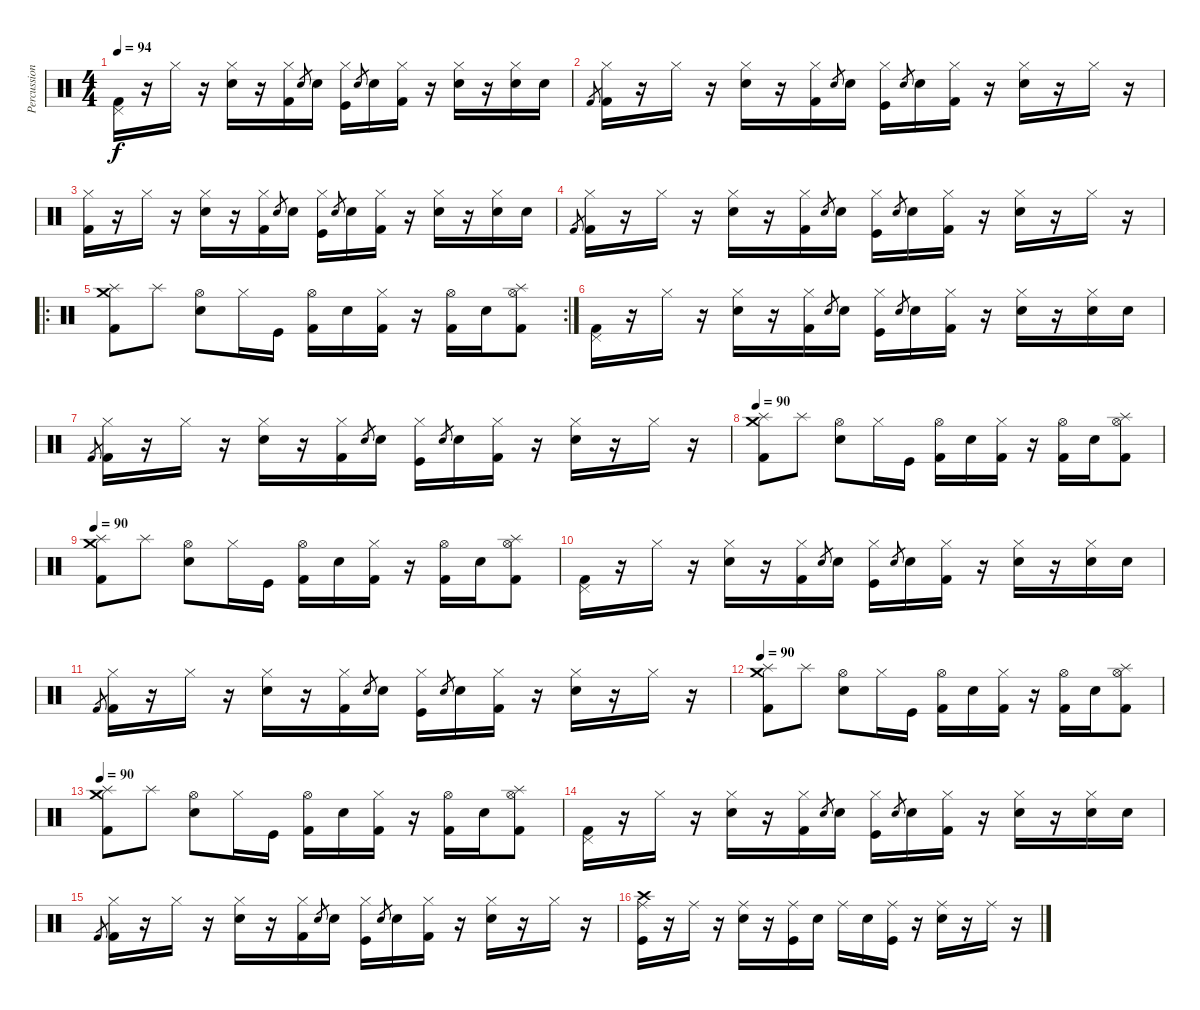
\track ("Percussions" "Percussion") {instrument percussion}
\staff {score}
\articulation defaults
\ts (4 4)
\tempo 94
\clef neutral
\ks c
("Pedal Hi-Hat (hit)" "Kick (hit) 2").16{dy f} r.16 "Hi-Hat (closed)".16 r.16 ("Hi-Hat (closed)" "Electric Snare (hit)").16 r.16 ("Hi-Hat (closed)" "Kick (hit) 2").16 "Electric Snare (hit)".8{gr} "Electric Snare (hit)".16 ("Hi-Hat (closed)" "Kick (hit)").16 "Electric Snare (hit)".8{gr} "Electric Snare (hit)".16 ("Hi-Hat (closed)" "Kick (hit) 2").16 r.16 ("Hi-Hat (closed)" "Electric Snare (hit)").16 r.16 ("Hi-Hat (closed)" "Electric Snare (hit)").16 "Electric Snare (hit)".16 |
"Kick (hit) 2".8{gr} ("Hi-Hat (closed)" "Kick (hit) 2").16 r.16 "Hi-Hat (closed)".16 r.16 ("Hi-Hat (closed)" "Electric Snare (hit)").16 r.16 ("Hi-Hat (closed)" "Kick (hit) 2").16 "Electric Snare (hit)".8{gr} "Electric Snare (hit)".16 ("Hi-Hat (closed)" "Kick (hit)").16 "Electric Snare (hit)".8{gr} "Electric Snare (hit)".16 ("Hi-Hat (closed)" "Kick (hit) 2").16 r.16 ("Hi-Hat (closed)" "Electric Snare (hit)").16 r.16 "Hi-Hat (closed)".16 r.16 |
("Hi-Hat (closed)" "Kick (hit) 2").16 r.16 "Hi-Hat (closed)".16 r.16 ("Hi-Hat (closed)" "Electric Snare (hit)").16 r.16 ("Hi-Hat (closed)" "Kick (hit) 2").16 "Electric Snare (hit)".8{gr} "Electric Snare (hit)".16 ("Hi-Hat (closed)" "Kick (hit)").16 "Electric Snare (hit)".8{gr} "Electric Snare (hit)".16 ("Hi-Hat (closed)" "Kick (hit) 2").16 r.16 ("Hi-Hat (closed)" "Electric Snare (hit)").16 r.16 ("Hi-Hat (closed)" "Electric Snare (hit)").16 "Electric Snare (hit)".16 |
"Kick (hit) 2".8{gr} ("Hi-Hat (closed)" "Kick (hit) 2").16 r.16 "Hi-Hat (closed)".16 r.16 ("Hi-Hat (closed)" "Electric Snare (hit)").16 r.16 ("Hi-Hat (closed)" "Kick (hit) 2").16 "Electric Snare (hit)".8{gr} "Electric Snare (hit)".16 ("Hi-Hat (closed)" "Kick (hit)").16 "Electric Snare (hit)".8{gr} "Electric Snare (hit)".16 ("Hi-Hat (closed)" "Kick (hit) 2").16 r.16 ("Hi-Hat (closed)" "Electric Snare (hit)").16 r.16 "Hi-Hat (closed)".16 r.16 |
\ro
\rc 2
("Splash (hit)" "Crash medium (hit)" "Kick (hit) 2").8 "Splash (hit)".8 ("Hi-Hat (open)" "Electric Snare (hit)").8 "Hi-Hat (closed)".16 "Kick (hit)".16 ("Hi-Hat (open)" "Kick (hit) 2").16 "Electric Snare (hit)".16 ("Hi-Hat (closed)" "Kick (hit) 2").16 r.16 ("Hi-Hat (open)" "Kick (hit) 2").16 "Electric Snare (hit)".16 ("Hi-Hat (open)" "Splash (hit)" "Kick (hit) 2").8 |
("Pedal Hi-Hat (hit)" "Kick (hit) 2").16 r.16 "Hi-Hat (closed)".16 r.16 ("Hi-Hat (closed)" "Electric Snare (hit)").16 r.16 ("Hi-Hat (closed)" "Kick (hit) 2").16 "Electric Snare (hit)".8{gr} "Electric Snare (hit)".16 ("Hi-Hat (closed)" "Kick (hit)").16 "Electric Snare (hit)".8{gr} "Electric Snare (hit)".16 ("Hi-Hat (closed)" "Kick (hit) 2").16 r.16 ("Hi-Hat (closed)" "Electric Snare (hit)").16 r.16 ("Hi-Hat (closed)" "Electric Snare (hit)").16 "Electric Snare (hit)".16 |
"Kick (hit) 2".8{gr} ("Hi-Hat (closed)" "Kick (hit) 2").16 r.16 "Hi-Hat (closed)".16 r.16 ("Hi-Hat (closed)" "Electric Snare (hit)").16 r.16 ("Hi-Hat (closed)" "Kick (hit) 2").16 "Electric Snare (hit)".8{gr} "Electric Snare (hit)".16 ("Hi-Hat (closed)" "Kick (hit)").16 "Electric Snare (hit)".8{gr} "Electric Snare (hit)".16 ("Hi-Hat (closed)" "Kick (hit) 2").16 r.16 ("Hi-Hat (closed)" "Electric Snare (hit)").16 r.16 "Hi-Hat (closed)".16 r.16 |
\tempo 90
("Splash (hit)" "Crash medium (hit)" "Kick (hit) 2").8 "Splash (hit)".8 ("Hi-Hat (open)" "Electric Snare (hit)").8 "Hi-Hat (closed)".16 "Kick (hit)".16 ("Hi-Hat (open)" "Kick (hit) 2").16 "Electric Snare (hit)".16 ("Hi-Hat (closed)" "Kick (hit) 2").16 r.16 ("Hi-Hat (open)" "Kick (hit) 2").16 "Electric Snare (hit)".16 ("Hi-Hat (open)" "Splash (hit)" "Kick (hit) 2").8 |
\tempo 90
("Splash (hit)" "Crash medium (hit)" "Kick (hit) 2").8 "Splash (hit)".8 ("Hi-Hat (open)" "Electric Snare (hit)").8 "Hi-Hat (closed)".16 "Kick (hit)".16 ("Hi-Hat (open)" "Kick (hit) 2").16 "Electric Snare (hit)".16 ("Hi-Hat (closed)" "Kick (hit) 2").16 r.16 ("Hi-Hat (open)" "Kick (hit) 2").16 "Electric Snare (hit)".16 ("Hi-Hat (open)" "Splash (hit)" "Kick (hit) 2").8 |
("Pedal Hi-Hat (hit)" "Kick (hit) 2").16 r.16 "Hi-Hat (closed)".16 r.16 ("Hi-Hat (closed)" "Electric Snare (hit)").16 r.16 ("Hi-Hat (closed)" "Kick (hit) 2").16 "Electric Snare (hit)".8{gr} "Electric Snare (hit)".16 ("Hi-Hat (closed)" "Kick (hit)").16 "Electric Snare (hit)".8{gr} "Electric Snare (hit)".16 ("Hi-Hat (closed)" "Kick (hit) 2").16 r.16 ("Hi-Hat (closed)" "Electric Snare (hit)").16 r.16 ("Hi-Hat (closed)" "Electric Snare (hit)").16 "Electric Snare (hit)".16 |
"Kick (hit) 2".8{gr} ("Hi-Hat (closed)" "Kick (hit) 2").16 r.16 "Hi-Hat (closed)".16 r.16 ("Hi-Hat (closed)" "Electric Snare (hit)").16 r.16 ("Hi-Hat (closed)" "Kick (hit) 2").16 "Electric Snare (hit)".8{gr} "Electric Snare (hit)".16 ("Hi-Hat (closed)" "Kick (hit)").16 "Electric Snare (hit)".8{gr} "Electric Snare (hit)".16 ("Hi-Hat (closed)" "Kick (hit) 2").16 r.16 ("Hi-Hat (closed)" "Electric Snare (hit)").16 r.16 "Hi-Hat (closed)".16 r.16 |
\tempo 90
("Splash (hit)" "Crash medium (hit)" "Kick (hit) 2").8 "Splash (hit)".8 ("Hi-Hat (open)" "Electric Snare (hit)").8 "Hi-Hat (closed)".16 "Kick (hit)".16 ("Hi-Hat (open)" "Kick (hit) 2").16 "Electric Snare (hit)".16 ("Hi-Hat (closed)" "Kick (hit) 2").16 r.16 ("Hi-Hat (open)" "Kick (hit) 2").16 "Electric Snare (hit)".16 ("Hi-Hat (open)" "Splash (hit)" "Kick (hit) 2").8 |
\tempo 90
("Splash (hit)" "Crash medium (hit)" "Kick (hit) 2").8 "Splash (hit)".8 ("Hi-Hat (open)" "Electric Snare (hit)").8 "Hi-Hat (closed)".16 "Kick (hit)".16 ("Hi-Hat (open)" "Kick (hit) 2").16 "Electric Snare (hit)".16 ("Hi-Hat (closed)" "Kick (hit) 2").16 r.16 ("Hi-Hat (open)" "Kick (hit) 2").16 "Electric Snare (hit)".16 ("Hi-Hat (open)" "Splash (hit)" "Kick (hit) 2").8 |
("Pedal Hi-Hat (hit)" "Kick (hit) 2").16 r.16 "Hi-Hat (closed)".16 r.16 ("Hi-Hat (closed)" "Electric Snare (hit)").16 r.16 ("Hi-Hat (closed)" "Kick (hit) 2").16 "Electric Snare (hit)".8{gr} "Electric Snare (hit)".16 ("Hi-Hat (closed)" "Kick (hit)").16 "Electric Snare (hit)".8{gr} "Electric Snare (hit)".16 ("Hi-Hat (closed)" "Kick (hit) 2").16 r.16 ("Hi-Hat (closed)" "Electric Snare (hit)").16 r.16 ("Hi-Hat (closed)" "Electric Snare (hit)").16 "Electric Snare (hit)".16 |
"Kick (hit) 2".8{gr} ("Hi-Hat (closed)" "Kick (hit) 2").16 r.16 "Hi-Hat (closed)".16 r.16 ("Hi-Hat (closed)" "Electric Snare (hit)").16 r.16 ("Hi-Hat (closed)" "Kick (hit) 2").16 "Electric Snare (hit)".8{gr} "Electric Snare (hit)".16 ("Hi-Hat (closed)" "Kick (hit)").16 "Electric Snare (hit)".8{gr} "Electric Snare (hit)".16 ("Hi-Hat (closed)" "Kick (hit) 2").16 r.16 ("Hi-Hat (closed)" "Electric Snare (hit)").16 r.16 "Hi-Hat (closed)".16 r.16 |
("Ride (middle)" "Crash high (hit)" "Kick (hit)").16 r.16 "Ride (middle)".16 r.16 ("Ride (middle)" "Electric Snare (hit)").16 r.16 ("Ride (middle)" "Kick (hit)").16 "Electric Snare (hit)".16 "Ride (middle)".16 "Electric Snare (hit)".16 ("Ride (middle)" "Kick (hit)").16 r.16 ("Ride (middle)" "Electric Snare (hit)").16 r.16 "Ride (middle)".16 r.16
